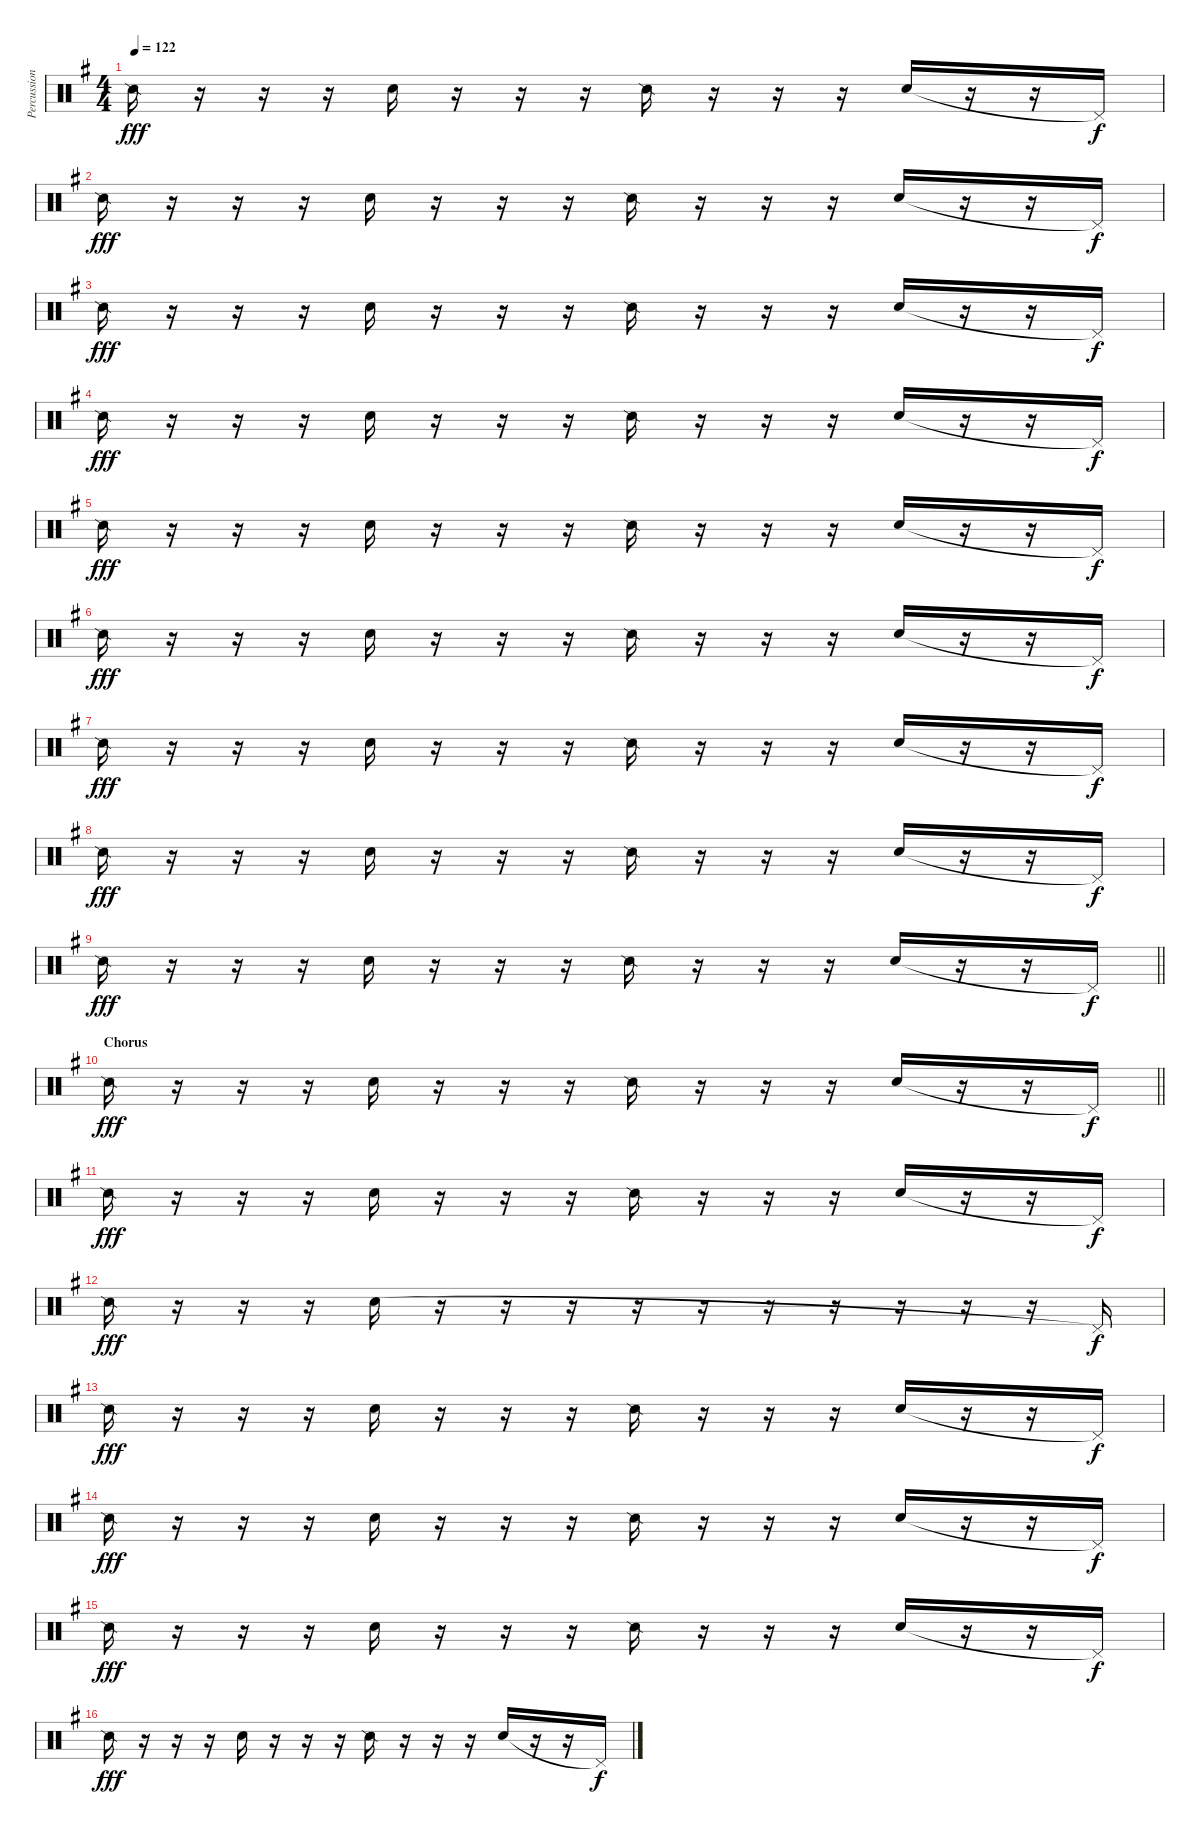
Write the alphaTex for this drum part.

\track ("Percussion" "Percussion") {instrument percussion}
\staff {score}
\articulation defaults
\ts (4 4)
\tempo 122
\clef neutral
\ks g "Snare (side stick) 2".16{dy fff}
r.16 r.16 r.16 "Hand Clap (hit)".16 r.16 r.16 r.16 "Snare (side stick) 2".16 r.16 r.16 r.16 "Hand Clap (hit)".16 r.16 r.16 "Pedal Hi-Hat (hit)"{t}.16{dy f} |
"Snare (side stick) 2".16{dy fff} r.16 r.16 r.16 "Hand Clap (hit)".16 r.16 r.16 r.16 "Snare (side stick) 2".16 r.16 r.16 r.16 "Hand Clap (hit)".16 r.16 r.16 "Pedal Hi-Hat (hit)"{t}.16{dy f} |
"Snare (side stick) 2".16{dy fff} r.16 r.16 r.16 "Hand Clap (hit)".16 r.16 r.16 r.16 "Snare (side stick) 2".16 r.16 r.16 r.16 "Hand Clap (hit)".16 r.16 r.16 "Pedal Hi-Hat (hit)"{t}.16{dy f} |
"Snare (side stick) 2".16{dy fff} r.16 r.16 r.16 "Hand Clap (hit)".16 r.16 r.16 r.16 "Snare (side stick) 2".16 r.16 r.16 r.16 "Hand Clap (hit)".16 r.16 r.16 "Pedal Hi-Hat (hit)"{t}.16{dy f} |
"Snare (side stick) 2".16{dy fff} r.16 r.16 r.16 "Hand Clap (hit)".16 r.16 r.16 r.16 "Snare (side stick) 2".16 r.16 r.16 r.16 "Hand Clap (hit)".16 r.16 r.16 "Pedal Hi-Hat (hit)"{t}.16{dy f} |
"Snare (side stick) 2".16{dy fff} r.16 r.16 r.16 "Hand Clap (hit)".16 r.16 r.16 r.16 "Snare (side stick) 2".16 r.16 r.16 r.16 "Hand Clap (hit)".16 r.16 r.16 "Pedal Hi-Hat (hit)"{t}.16{dy f} |
"Snare (side stick) 2".16{dy fff} r.16 r.16 r.16 "Hand Clap (hit)".16 r.16 r.16 r.16 "Snare (side stick) 2".16 r.16 r.16 r.16 "Hand Clap (hit)".16 r.16 r.16 "Pedal Hi-Hat (hit)"{t}.16{dy f} |
"Snare (side stick) 2".16{dy fff} r.16 r.16 r.16 "Hand Clap (hit)".16 r.16 r.16 r.16 "Snare (side stick) 2".16 r.16 r.16 r.16 "Hand Clap (hit)".16 r.16 r.16 "Pedal Hi-Hat (hit)"{t}.16{dy f} |
\barLineRight lightlight "Snare (side stick) 2".16{dy fff}
r.16 r.16 r.16 "Hand Clap (hit)".16 r.16 r.16 r.16 "Snare (side stick) 2".16 r.16 r.16 r.16 "Hand Clap (hit)".16 r.16 r.16 "Pedal Hi-Hat (hit)"{t}.16{dy f} |
\section ("" "Chorus")
\barLineRight lightlight "Snare (side stick) 2".16{dy fff}
r.16 r.16 r.16 "Hand Clap (hit)".16 r.16 r.16 r.16 "Snare (side stick) 2".16 r.16 r.16 r.16 "Hand Clap (hit)".16 r.16 r.16 "Pedal Hi-Hat (hit)"{t}.16{dy f} |
\section ("" "")
"Snare (side stick) 2".16{dy fff} r.16 r.16 r.16 "Hand Clap (hit)".16 r.16 r.16 r.16 "Snare (side stick) 2".16 r.16 r.16 r.16 "Hand Clap (hit)".16 r.16 r.16 "Pedal Hi-Hat (hit)"{t}.16{dy f} |
"Snare (side stick) 2".16{dy fff} r.16 r.16 r.16 "Hand Clap (hit)".16 r.16 r.16 r.16 r.16 r.16 r.16 r.16 r.16 r.16 r.16 "Pedal Hi-Hat (hit)"{t}.16{dy f} |
"Snare (side stick) 2".16{dy fff} r.16 r.16 r.16 "Hand Clap (hit)".16 r.16 r.16 r.16 "Snare (side stick) 2".16 r.16 r.16 r.16 "Hand Clap (hit)".16 r.16 r.16 "Pedal Hi-Hat (hit)"{t}.16{dy f} |
"Snare (side stick) 2".16{dy fff} r.16 r.16 r.16 "Hand Clap (hit)".16 r.16 r.16 r.16 "Snare (side stick) 2".16 r.16 r.16 r.16 "Hand Clap (hit)".16 r.16 r.16 "Pedal Hi-Hat (hit)"{t}.16{dy f} |
"Snare (side stick) 2".16{dy fff} r.16 r.16 r.16 "Hand Clap (hit)".16 r.16 r.16 r.16 "Snare (side stick) 2".16 r.16 r.16 r.16 "Hand Clap (hit)".16 r.16 r.16 "Pedal Hi-Hat (hit)"{t}.16{dy f} |
"Snare (side stick) 2".16{dy fff} r.16 r.16 r.16 "Hand Clap (hit)".16 r.16 r.16 r.16 "Snare (side stick) 2".16 r.16 r.16 r.16 "Hand Clap (hit)".16 r.16 r.16 "Pedal Hi-Hat (hit)"{t}.16{dy f}
